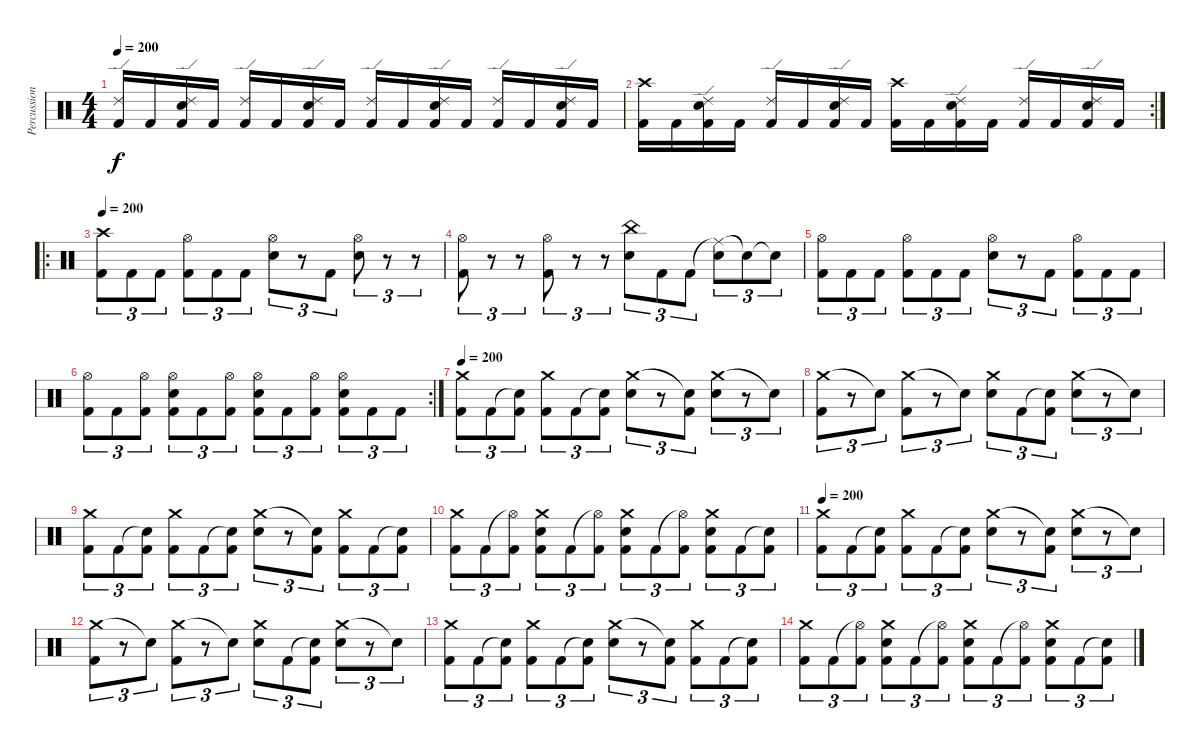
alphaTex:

\track ("Percussion" "Percussion") {instrument percussion}
\staff {score}
\articulation defaults
\ts (4 4)
\tempo 200
\clef neutral
\ks c
("Ride (edge) 2" "Kick (hit) 2").16{dy f} "Kick (hit) 2".16 ("Ride (edge) 2" "Electric Snare (hit)" "Kick (hit) 2").16 "Kick (hit) 2".16 ("Ride (edge) 2" "Kick (hit) 2").16 "Kick (hit) 2".16 ("Ride (edge) 2" "Electric Snare (hit)" "Kick (hit) 2").16 "Kick (hit) 2".16 ("Ride (edge) 2" "Kick (hit) 2").16 "Kick (hit) 2".16 ("Ride (edge) 2" "Electric Snare (hit)" "Kick (hit) 2").16 "Kick (hit) 2".16 ("Ride (edge) 2" "Kick (hit) 2").16 "Kick (hit) 2".16 ("Ride (edge) 2" "Electric Snare (hit)" "Kick (hit) 2").16 "Kick (hit) 2".16 |
\rc 2
("Crash high (hit)" "Kick (hit) 2").16 "Kick (hit) 2".16 ("Ride (edge) 2" "Electric Snare (hit)" "Kick (hit) 2").16 "Kick (hit) 2".16 ("Ride (edge) 2" "Kick (hit) 2").16 "Kick (hit) 2".16 ("Ride (edge) 2" "Electric Snare (hit)" "Kick (hit) 2").16 "Kick (hit) 2".16 ("Crash high (hit)" "Kick (hit) 2").16 "Kick (hit) 2".16 ("Ride (edge) 2" "Electric Snare (hit)" "Kick (hit) 2").16 "Kick (hit) 2".16 ("Ride (edge) 2" "Kick (hit) 2").16 "Kick (hit) 2".16 ("Ride (edge) 2" "Electric Snare (hit)" "Kick (hit) 2").16 "Kick (hit) 2".16 |
\ro
\tempo 200
("Crash high (hit)" "Kick (hit) 2").8{tu (3 2)} "Kick (hit) 2".8{tu (3 2)} "Kick (hit) 2".8{tu (3 2)} ("Hi-Hat (open)" "Kick (hit) 2").8{tu (3 2)} "Kick (hit) 2".8{tu (3 2)} "Kick (hit) 2".8{tu (3 2)} ("Hi-Hat (open)" "Electric Snare (hit)").8{tu (3 2)} r.8{tu (3 2)} "Kick (hit) 2".8{tu (3 2)} ("Hi-Hat (open)" "Electric Snare (hit)").8{tu (3 2)} r.8{tu (3 2)} r.8{tu (3 2)} |
("Hi-Hat (open)" "Kick (hit) 2").8{tu (3 2)} r.8{tu (3 2)} r.8{tu (3 2)} ("Hi-Hat (open)" "Kick (hit) 2").8{tu (3 2)} r.8{tu (3 2)} r.8{tu (3 2)} ("China (hit)" "Electric Snare (hit)").8{tu (3 2)} "Kick (hit) 2".8{tu (3 2)} "Kick (hit) 2".8{tu (3 2)} ("Ride (middle)"{t} "Electric Snare (hit)").8{tu (3 2)} "Snare (hit)"{t}.8{tu (3 2)} "Snare (hit)"{t}.8{tu (3 2)} |
("Hi-Hat (open)" "Kick (hit) 2").8{tu (3 2)} "Kick (hit) 2".8{tu (3 2)} "Kick (hit) 2".8{tu (3 2)} ("Hi-Hat (open)" "Kick (hit) 2").8{tu (3 2)} "Kick (hit) 2".8{tu (3 2)} "Kick (hit) 2".8{tu (3 2)} ("Hi-Hat (open)" "Electric Snare (hit)").8{tu (3 2)} r.8{tu (3 2)} "Kick (hit) 2".8{tu (3 2)} ("Hi-Hat (open)" "Kick (hit) 2").8{tu (3 2)} "Kick (hit) 2".8{tu (3 2)} "Kick (hit) 2".8{tu (3 2)} |
\rc 2
("Hi-Hat (open)" "Kick (hit) 2").8{tu (3 2)} "Kick (hit) 2".8{tu (3 2)} ("Hi-Hat (open)" "Kick (hit) 2").8{tu (3 2)} ("Hi-Hat (open)" "Electric Snare (hit)" "Kick (hit) 2").8{tu (3 2)} "Kick (hit) 2".8{tu (3 2)} ("Hi-Hat (open)" "Kick (hit) 2").8{tu (3 2)} ("Hi-Hat (open)" "Electric Snare (hit)" "Kick (hit) 2").8{tu (3 2)} "Kick (hit) 2".8{tu (3 2)} ("Hi-Hat (open)" "Kick (hit) 2").8{tu (3 2)} ("Hi-Hat (open)" "Electric Snare (hit)" "Kick (hit) 2").8{tu (3 2)} "Kick (hit) 2".8{tu (3 2)} "Kick (hit) 2".8{tu (3 2)} |
\tempo 200
("Crash medium (hit)" "Kick (hit) 2").8{tu (3 2)} "Kick (hit) 2".8{tu (3 2)} ("Snare (hit)"{t} "Kick (hit) 2").8{tu (3 2)} ("Crash medium (hit)" "Kick (hit) 2").8{tu (3 2)} "Kick (hit) 2".8{tu (3 2)} ("Snare (hit)"{t} "Kick (hit) 2").8{tu (3 2)} ("Crash medium (hit)" "Electric Snare (hit)").8{tu (3 2)} r.8{tu (3 2)} ("Snare (hit)"{t} "Kick (hit) 2").8{tu (3 2)} ("Crash medium (hit)" "Electric Snare (hit)").8{tu (3 2)} r.8{tu (3 2)} "Snare (hit)"{t}.8{tu (3 2)} |
("Crash medium (hit)" "Kick (hit) 2").8{tu (3 2)} r.8{tu (3 2)} "Snare (hit)"{t}.8{tu (3 2)} ("Crash medium (hit)" "Kick (hit) 2").8{tu (3 2)} r.8{tu (3 2)} "Snare (hit)"{t}.8{tu (3 2)} ("Crash medium (hit)" "Electric Snare (hit)").8{tu (3 2)} "Kick (hit) 2".8{tu (3 2)} ("Snare (hit)"{t} "Kick (hit) 2").8{tu (3 2)} ("Crash medium (hit)" "Electric Snare (hit)").8{tu (3 2)} r.8{tu (3 2)} "Snare (hit)"{t}.8{tu (3 2)} |
("Crash medium (hit)" "Kick (hit) 2").8{tu (3 2)} "Kick (hit) 2".8{tu (3 2)} ("Snare (hit)"{t} "Kick (hit) 2").8{tu (3 2)} ("Crash medium (hit)" "Kick (hit) 2").8{tu (3 2)} "Kick (hit) 2".8{tu (3 2)} ("Snare (hit)"{t} "Kick (hit) 2").8{tu (3 2)} ("Crash medium (hit)" "Electric Snare (hit)").8{tu (3 2)} r.8{tu (3 2)} ("Snare (hit)"{t} "Kick (hit) 2").8{tu (3 2)} ("Crash medium (hit)" "Kick (hit) 2").8{tu (3 2)} "Kick (hit) 2".8{tu (3 2)} ("Snare (hit)"{t} "Kick (hit) 2").8{tu (3 2)} |
("Crash medium (hit)" "Kick (hit) 2").8{tu (3 2)} "Kick (hit) 2".8{tu (3 2)} ("Hi-Hat (open)"{t} "Kick (hit) 2").8{tu (3 2)} ("Crash medium (hit)" "Electric Snare (hit)" "Kick (hit) 2").8{tu (3 2)} "Kick (hit) 2".8{tu (3 2)} ("Hi-Hat (open)"{t} "Kick (hit) 2").8{tu (3 2)} ("Crash medium (hit)" "Electric Snare (hit)" "Kick (hit) 2").8{tu (3 2)} "Kick (hit) 2".8{tu (3 2)} ("Hi-Hat (open)"{t} "Kick (hit) 2").8{tu (3 2)} ("Crash medium (hit)" "Electric Snare (hit)" "Kick (hit) 2").8{tu (3 2)} "Kick (hit) 2".8{tu (3 2)} ("Snare (hit)"{t} "Kick (hit) 2").8{tu (3 2)} |
\tempo 200
("Crash medium (hit)" "Kick (hit) 2").8{tu (3 2)} "Kick (hit) 2".8{tu (3 2)} ("Snare (hit)"{t} "Kick (hit) 2").8{tu (3 2)} ("Crash medium (hit)" "Kick (hit) 2").8{tu (3 2)} "Kick (hit) 2".8{tu (3 2)} ("Snare (hit)"{t} "Kick (hit) 2").8{tu (3 2)} ("Crash medium (hit)" "Electric Snare (hit)").8{tu (3 2)} r.8{tu (3 2)} ("Snare (hit)"{t} "Kick (hit) 2").8{tu (3 2)} ("Crash medium (hit)" "Electric Snare (hit)").8{tu (3 2)} r.8{tu (3 2)} "Snare (hit)"{t}.8{tu (3 2)} |
("Crash medium (hit)" "Kick (hit) 2").8{tu (3 2)} r.8{tu (3 2)} "Snare (hit)"{t}.8{tu (3 2)} ("Crash medium (hit)" "Kick (hit) 2").8{tu (3 2)} r.8{tu (3 2)} "Snare (hit)"{t}.8{tu (3 2)} ("Crash medium (hit)" "Electric Snare (hit)").8{tu (3 2)} "Kick (hit) 2".8{tu (3 2)} ("Snare (hit)"{t} "Kick (hit) 2").8{tu (3 2)} ("Crash medium (hit)" "Electric Snare (hit)").8{tu (3 2)} r.8{tu (3 2)} "Snare (hit)"{t}.8{tu (3 2)} |
("Crash medium (hit)" "Kick (hit) 2").8{tu (3 2)} "Kick (hit) 2".8{tu (3 2)} ("Snare (hit)"{t} "Kick (hit) 2").8{tu (3 2)} ("Crash medium (hit)" "Kick (hit) 2").8{tu (3 2)} "Kick (hit) 2".8{tu (3 2)} ("Snare (hit)"{t} "Kick (hit) 2").8{tu (3 2)} ("Crash medium (hit)" "Electric Snare (hit)").8{tu (3 2)} r.8{tu (3 2)} ("Snare (hit)"{t} "Kick (hit) 2").8{tu (3 2)} ("Crash medium (hit)" "Kick (hit) 2").8{tu (3 2)} "Kick (hit) 2".8{tu (3 2)} ("Snare (hit)"{t} "Kick (hit) 2").8{tu (3 2)} |
("Crash medium (hit)" "Kick (hit) 2").8{tu (3 2)} "Kick (hit) 2".8{tu (3 2)} ("Hi-Hat (open)"{t} "Kick (hit) 2").8{tu (3 2)} ("Crash medium (hit)" "Electric Snare (hit)" "Kick (hit) 2").8{tu (3 2)} "Kick (hit) 2".8{tu (3 2)} ("Hi-Hat (open)"{t} "Kick (hit) 2").8{tu (3 2)} ("Crash medium (hit)" "Electric Snare (hit)" "Kick (hit) 2").8{tu (3 2)} "Kick (hit) 2".8{tu (3 2)} ("Hi-Hat (open)"{t} "Kick (hit) 2").8{tu (3 2)} ("Crash medium (hit)" "Electric Snare (hit)" "Kick (hit) 2").8{tu (3 2)} "Kick (hit) 2".8{tu (3 2)} ("Snare (hit)"{t} "Kick (hit) 2").8{tu (3 2)}
